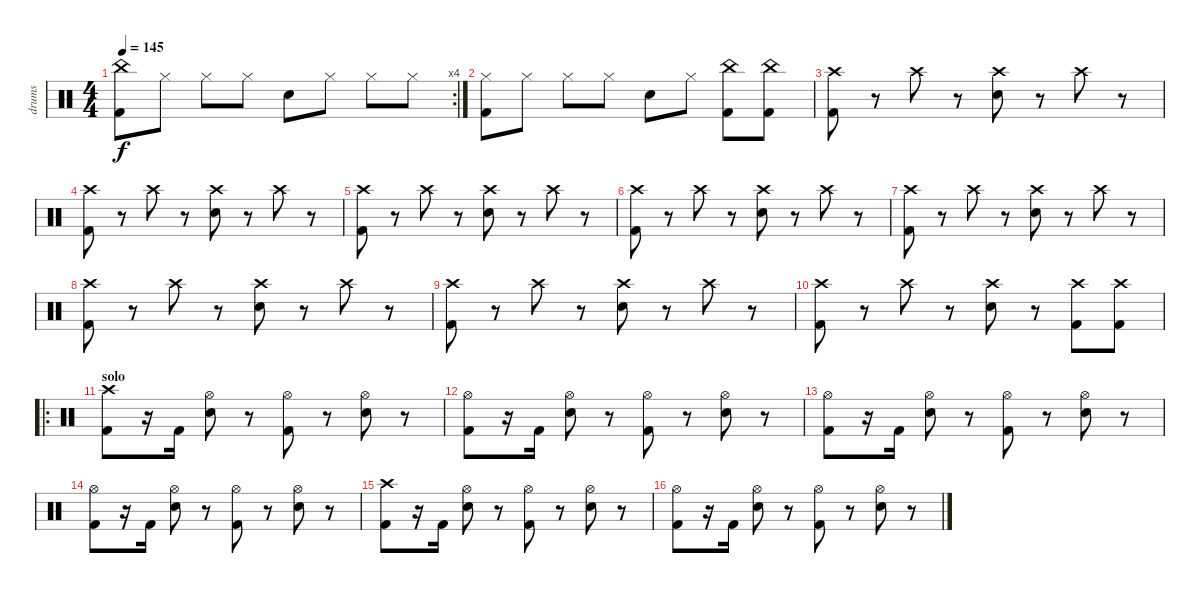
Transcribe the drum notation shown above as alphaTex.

\track ("drums" "drums") {instrument percussion}
\staff {score}
\articulation defaults
\rc 4
\ts (4 4)
\tempo 145
\clef neutral
\ks c
("Kick (hit) 2" "China (hit)").8{dy f} "Hi-Hat (closed)".8 "Hi-Hat (closed)".8 "Hi-Hat (closed)".8 "Snare (hit) 2".8 "Hi-Hat (closed)".8 "Hi-Hat (closed)".8 "Hi-Hat (closed)".8 |
("Kick (hit) 2" "Hi-Hat (closed)").8 "Hi-Hat (closed)".8 "Hi-Hat (closed)".8 "Hi-Hat (closed)".8 "Snare (hit) 2".8 "Hi-Hat (closed)".8 ("Kick (hit) 2" "China (hit)").8 ("Kick (hit) 2" "China (hit)").8 |
("Kick (hit) 2" "Crash high (hit)").8 r.8 "Crash high (hit)".8 r.8 ("Snare (hit) 2" "Crash high (hit)").8 r.8 "Crash high (hit)".8 r.8 |
("Kick (hit) 2" "Crash high (hit)").8 r.8 "Crash high (hit)".8 r.8 ("Snare (hit) 2" "Crash high (hit)").8 r.8 "Crash high (hit)".8 r.8 |
("Kick (hit) 2" "Crash high (hit)").8 r.8 "Crash high (hit)".8 r.8 ("Snare (hit) 2" "Crash high (hit)").8 r.8 "Crash high (hit)".8 r.8 |
("Kick (hit) 2" "Crash high (hit)").8 r.8 "Crash high (hit)".8 r.8 ("Snare (hit) 2" "Crash high (hit)").8 r.8 "Crash high (hit)".8 r.8 |
("Kick (hit) 2" "Crash high (hit)").8 r.8 "Crash high (hit)".8 r.8 ("Snare (hit) 2" "Crash high (hit)").8 r.8 "Crash high (hit)".8 r.8 |
("Kick (hit) 2" "Crash high (hit)").8 r.8 "Crash high (hit)".8 r.8 ("Snare (hit) 2" "Crash high (hit)").8 r.8 "Crash high (hit)".8 r.8 |
("Kick (hit) 2" "Crash high (hit)").8 r.8 "Crash high (hit)".8 r.8 ("Snare (hit) 2" "Crash high (hit)").8 r.8 "Crash high (hit)".8 r.8 |
("Kick (hit) 2" "Crash high (hit)").8 r.8 "Crash high (hit)".8 r.8 ("Snare (hit) 2" "Crash high (hit)").8 r.8 ("Kick (hit) 2" "Crash high (hit)").8 ("Kick (hit) 2" "Crash high (hit)").8 |
\ro
\section ("" "solo")
("Kick (hit) 2" "Crash high (hit)").8 r.16 "Kick (hit) 2".16 ("Snare (hit) 2" "Hi-Hat (open)").8 r.8 ("Kick (hit) 2" "Hi-Hat (open)").8 r.8 ("Snare (hit) 2" "Hi-Hat (open)").8 r.8 |
("Kick (hit) 2" "Hi-Hat (open)").8 r.16 "Kick (hit) 2".16 ("Snare (hit) 2" "Hi-Hat (open)").8 r.8 ("Kick (hit) 2" "Hi-Hat (open)").8 r.8 ("Snare (hit) 2" "Hi-Hat (open)").8 r.8 |
("Kick (hit) 2" "Hi-Hat (open)").8 r.16 "Kick (hit) 2".16 ("Snare (hit) 2" "Hi-Hat (open)").8 r.8 ("Kick (hit) 2" "Hi-Hat (open)").8 r.8 ("Snare (hit) 2" "Hi-Hat (open)").8 r.8 |
("Kick (hit) 2" "Hi-Hat (open)").8 r.16 "Kick (hit) 2".16 ("Snare (hit) 2" "Hi-Hat (open)").8 r.8 ("Kick (hit) 2" "Hi-Hat (open)").8 r.8 ("Snare (hit) 2" "Hi-Hat (open)").8 r.8 |
("Kick (hit) 2" "Crash high (hit)").8 r.16 "Kick (hit) 2".16 ("Snare (hit) 2" "Hi-Hat (open)").8 r.8 ("Kick (hit) 2" "Hi-Hat (open)").8 r.8 ("Snare (hit) 2" "Hi-Hat (open)").8 r.8 |
("Kick (hit) 2" "Hi-Hat (open)").8 r.16 "Kick (hit) 2".16 ("Snare (hit) 2" "Hi-Hat (open)").8 r.8 ("Kick (hit) 2" "Hi-Hat (open)").8 r.8 ("Snare (hit) 2" "Hi-Hat (open)").8 r.8
